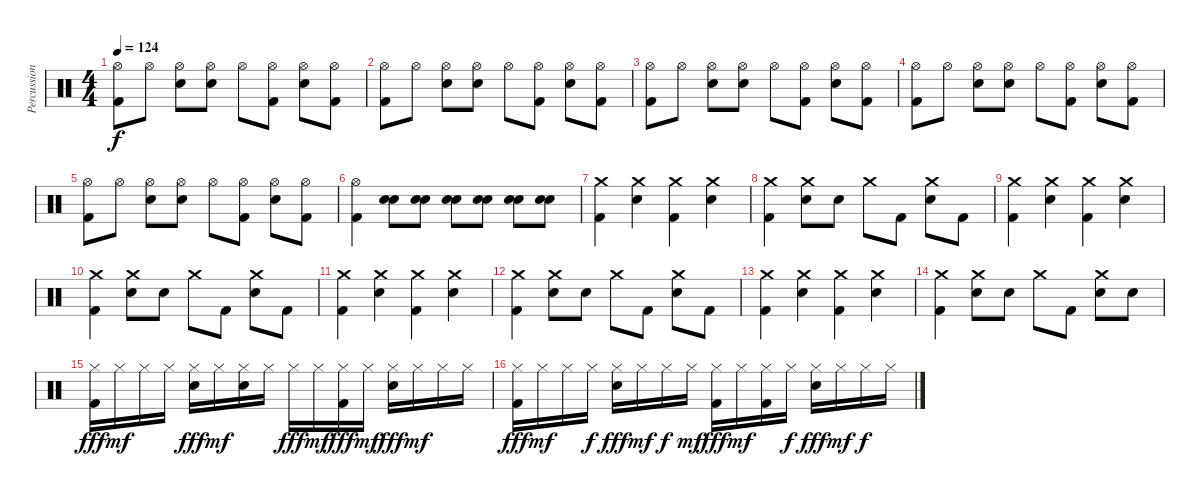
\track ("Percussion" "Percussion") {instrument percussion}
\staff {score}
\articulation defaults
\ts (4 4)
\tempo 124
\clef neutral
\ks c
("Hi-Hat (open)" "Kick (hit) 2").8{dy f} "Hi-Hat (open)".8 ("Hi-Hat (open)" "Snare (hit) 2").8 ("Hi-Hat (open)" "Snare (hit) 2").8 "Hi-Hat (open)".8 ("Hi-Hat (open)" "Kick (hit) 2").8 ("Hi-Hat (open)" "Snare (hit) 2").8 ("Hi-Hat (open)" "Kick (hit) 2").8 |
("Hi-Hat (open)" "Kick (hit) 2").8 "Hi-Hat (open)".8 ("Hi-Hat (open)" "Snare (hit) 2").8 ("Hi-Hat (open)" "Snare (hit) 2").8 "Hi-Hat (open)".8 ("Hi-Hat (open)" "Kick (hit) 2").8 ("Hi-Hat (open)" "Snare (hit) 2").8 ("Hi-Hat (open)" "Kick (hit) 2").8 |
("Hi-Hat (open)" "Kick (hit) 2").8 "Hi-Hat (open)".8 ("Hi-Hat (open)" "Snare (hit) 2").8 ("Hi-Hat (open)" "Snare (hit) 2").8 "Hi-Hat (open)".8 ("Hi-Hat (open)" "Kick (hit) 2").8 ("Hi-Hat (open)" "Snare (hit) 2").8 ("Hi-Hat (open)" "Kick (hit) 2").8 |
("Hi-Hat (open)" "Kick (hit) 2").8 "Hi-Hat (open)".8 ("Hi-Hat (open)" "Snare (hit) 2").8 ("Hi-Hat (open)" "Snare (hit) 2").8 "Hi-Hat (open)".8 ("Hi-Hat (open)" "Kick (hit) 2").8 ("Hi-Hat (open)" "Snare (hit) 2").8 ("Hi-Hat (open)" "Kick (hit) 2").8 |
("Hi-Hat (open)" "Kick (hit) 2").8 "Hi-Hat (open)".8 ("Hi-Hat (open)" "Snare (hit) 2").8 ("Hi-Hat (open)" "Snare (hit) 2").8 "Hi-Hat (open)".8 ("Hi-Hat (open)" "Kick (hit) 2").8 ("Hi-Hat (open)" "Snare (hit) 2").8 ("Hi-Hat (open)" "Kick (hit) 2").8 |
("Hi-Hat (open)" "Kick (hit) 2").4 ("Snare (hit) 2" "Snare (hit) 2").8 ("Snare (hit) 2" "Snare (hit) 2").8 ("Snare (hit) 2" "Snare (hit) 2").8 ("Snare (hit) 2" "Snare (hit) 2").8 ("Snare (hit) 2" "Snare (hit) 2").8 ("Snare (hit) 2" "Snare (hit) 2").8 |
("Crash medium (hit)" "Kick (hit) 2").4 ("Crash medium (hit)" "Snare (hit) 2").4 ("Crash medium (hit)" "Kick (hit) 2").4 ("Crash medium (hit)" "Snare (hit) 2").4 |
("Crash medium (hit)" "Kick (hit) 2").4 ("Crash medium (hit)" "Snare (hit) 2").8 "Snare (hit) 2".8 "Crash medium (hit)".8 "Kick (hit) 2".8 ("Crash medium (hit)" "Snare (hit) 2").8 "Kick (hit) 2".8 |
("Crash medium (hit)" "Kick (hit) 2").4 ("Crash medium (hit)" "Snare (hit) 2").4 ("Crash medium (hit)" "Kick (hit) 2").4 ("Crash medium (hit)" "Snare (hit) 2").4 |
("Crash medium (hit)" "Kick (hit) 2").4 ("Crash medium (hit)" "Snare (hit) 2").8 "Snare (hit) 2".8 "Crash medium (hit)".8 "Kick (hit) 2".8 ("Crash medium (hit)" "Snare (hit) 2").8 "Kick (hit) 2".8 |
("Crash medium (hit)" "Kick (hit) 2").4 ("Crash medium (hit)" "Snare (hit) 2").4 ("Crash medium (hit)" "Kick (hit) 2").4 ("Crash medium (hit)" "Snare (hit) 2").4 |
("Crash medium (hit)" "Kick (hit) 2").4 ("Crash medium (hit)" "Snare (hit) 2").8 "Snare (hit) 2".8 "Crash medium (hit)".8 "Kick (hit) 2".8 ("Crash medium (hit)" "Snare (hit) 2").8 "Kick (hit) 2".8 |
("Crash medium (hit)" "Kick (hit) 2").4 ("Crash medium (hit)" "Snare (hit) 2").4 ("Crash medium (hit)" "Kick (hit) 2").4 ("Crash medium (hit)" "Snare (hit) 2").4 |
("Crash medium (hit)" "Kick (hit) 2").4 ("Crash medium (hit)" "Snare (hit) 2").8 "Snare (hit) 2".8 "Crash medium (hit)".8 "Kick (hit) 2".8 ("Crash medium (hit)" "Snare (hit) 2").8 "Snare (hit) 2".8 |
("Hi-Hat (closed)" "Kick (hit) 2").16{dy fff} "Hi-Hat (closed)".16{dy mf} "Hi-Hat (closed)".16 "Hi-Hat (closed)".16 ("Hi-Hat (closed)" "Snare (hit) 2").16{dy fff} "Hi-Hat (closed)".16{dy mf} ("Hi-Hat (closed)" "Snare (hit) 2").16 "Hi-Hat (closed)".16 "Hi-Hat (closed)".16{dy fff} "Hi-Hat (closed)".16{dy mf} ("Hi-Hat (closed)" "Kick (hit) 2").16{dy fff} "Hi-Hat (closed)".16{dy mf} ("Hi-Hat (closed)" "Snare (hit) 2").16{dy fff} "Hi-Hat (closed)".16{dy mf} "Hi-Hat (closed)".16 "Hi-Hat (closed)".16 |
("Hi-Hat (closed)" "Kick (hit) 2").16{dy fff} "Hi-Hat (closed)".16{dy mf} "Hi-Hat (closed)".16 "Hi-Hat (closed)".16{dy f} ("Hi-Hat (closed)" "Snare (hit) 2").16{dy fff} "Hi-Hat (closed)".16{dy mf} "Hi-Hat (closed)".16{dy f} "Hi-Hat (closed)".16{dy mf} ("Hi-Hat (closed)" "Kick (hit) 2").16{dy fff} "Hi-Hat (closed)".16{dy mf} ("Hi-Hat (closed)" "Kick (hit) 2").16 "Hi-Hat (closed)".16{dy f} ("Hi-Hat (closed)" "Snare (hit) 2").16{dy fff} "Hi-Hat (closed)".16{dy mf} "Hi-Hat (closed)".16{dy f} "Hi-Hat (closed)".16
